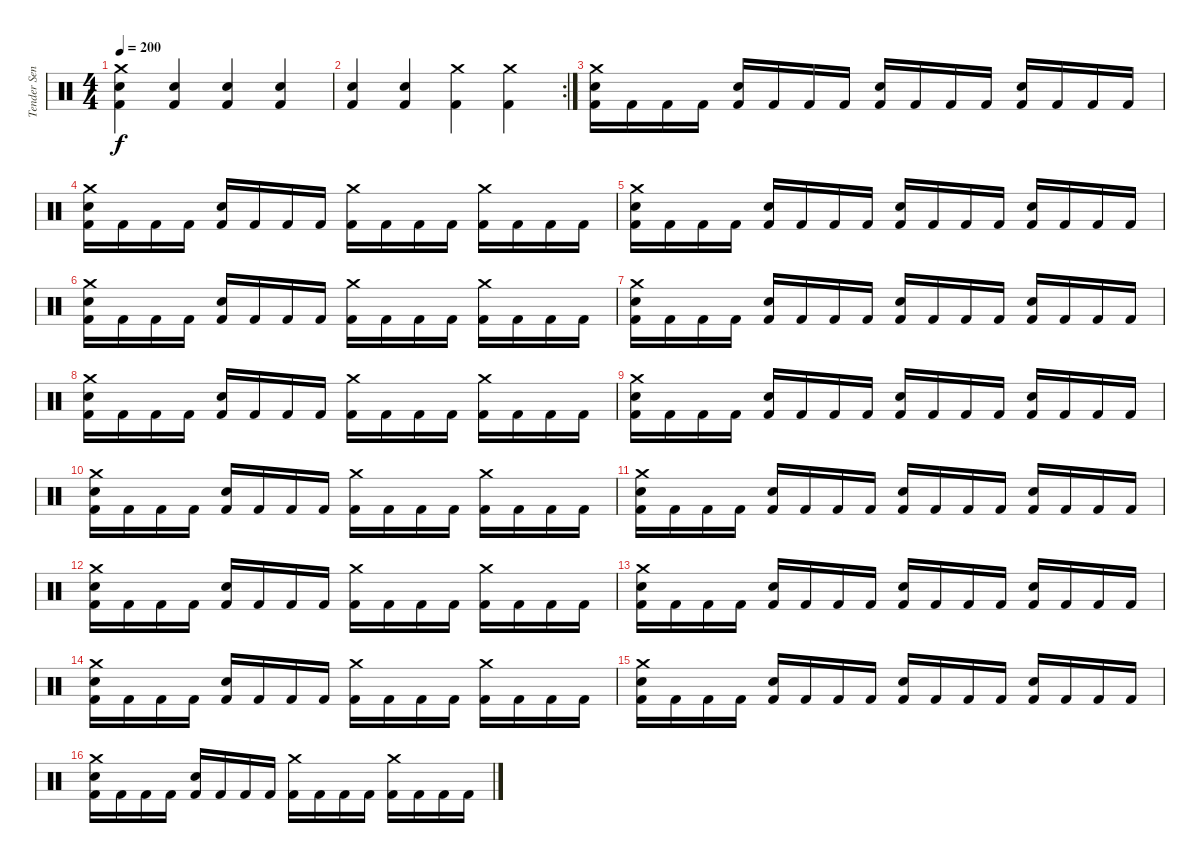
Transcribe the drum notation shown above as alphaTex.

\track ("Tender Sender" "Tender Sen") {instrument percussion}
\staff {score}
\articulation defaults
\ts (4 4)
\tempo 200
\clef neutral
\ks c
("Kick (hit) 2" "Snare (hit) 2" "Crash medium (hit)").4{dy f} ("Kick (hit) 2" "Snare (hit) 2").4 ("Kick (hit) 2" "Snare (hit) 2").4 ("Kick (hit) 2" "Snare (hit) 2").4 |
\rc 2
("Kick (hit) 2" "Snare (hit) 2").4 ("Kick (hit) 2" "Snare (hit) 2").4 ("Kick (hit) 2" "Crash medium (hit)").4 ("Kick (hit) 2" "Crash medium (hit)").4 |
("Kick (hit) 2" "Snare (hit) 2" "Crash medium (hit)").16 "Kick (hit) 2".16 "Kick (hit) 2".16 "Kick (hit) 2".16 ("Kick (hit) 2" "Snare (hit) 2").16 "Kick (hit) 2".16 "Kick (hit) 2".16 "Kick (hit) 2".16 ("Kick (hit) 2" "Snare (hit) 2").16 "Kick (hit) 2".16 "Kick (hit) 2".16 "Kick (hit) 2".16 ("Kick (hit) 2" "Snare (hit) 2").16 "Kick (hit) 2".16 "Kick (hit) 2".16 "Kick (hit) 2".16 |
("Kick (hit) 2" "Snare (hit) 2" "Crash medium (hit)").16 "Kick (hit) 2".16 "Kick (hit) 2".16 "Kick (hit) 2".16 ("Kick (hit) 2" "Snare (hit) 2").16 "Kick (hit) 2".16 "Kick (hit) 2".16 "Kick (hit) 2".16 ("Kick (hit) 2" "Crash medium (hit)").16 "Kick (hit) 2".16 "Kick (hit) 2".16 "Kick (hit) 2".16 ("Kick (hit) 2" "Crash medium (hit)").16 "Kick (hit) 2".16 "Kick (hit) 2".16 "Kick (hit) 2".16 |
("Kick (hit) 2" "Snare (hit) 2" "Crash medium (hit)").16 "Kick (hit) 2".16 "Kick (hit) 2".16 "Kick (hit) 2".16 ("Kick (hit) 2" "Snare (hit) 2").16 "Kick (hit) 2".16 "Kick (hit) 2".16 "Kick (hit) 2".16 ("Kick (hit) 2" "Snare (hit) 2").16 "Kick (hit) 2".16 "Kick (hit) 2".16 "Kick (hit) 2".16 ("Kick (hit) 2" "Snare (hit) 2").16 "Kick (hit) 2".16 "Kick (hit) 2".16 "Kick (hit) 2".16 |
("Kick (hit) 2" "Snare (hit) 2" "Crash medium (hit)").16 "Kick (hit) 2".16 "Kick (hit) 2".16 "Kick (hit) 2".16 ("Kick (hit) 2" "Snare (hit) 2").16 "Kick (hit) 2".16 "Kick (hit) 2".16 "Kick (hit) 2".16 ("Kick (hit) 2" "Crash medium (hit)").16 "Kick (hit) 2".16 "Kick (hit) 2".16 "Kick (hit) 2".16 ("Kick (hit) 2" "Crash medium (hit)").16 "Kick (hit) 2".16 "Kick (hit) 2".16 "Kick (hit) 2".16 |
("Kick (hit) 2" "Snare (hit) 2" "Crash medium (hit)").16 "Kick (hit) 2".16 "Kick (hit) 2".16 "Kick (hit) 2".16 ("Kick (hit) 2" "Snare (hit) 2").16 "Kick (hit) 2".16 "Kick (hit) 2".16 "Kick (hit) 2".16 ("Kick (hit) 2" "Snare (hit) 2").16 "Kick (hit) 2".16 "Kick (hit) 2".16 "Kick (hit) 2".16 ("Kick (hit) 2" "Snare (hit) 2").16 "Kick (hit) 2".16 "Kick (hit) 2".16 "Kick (hit) 2".16 |
("Kick (hit) 2" "Snare (hit) 2" "Crash medium (hit)").16 "Kick (hit) 2".16 "Kick (hit) 2".16 "Kick (hit) 2".16 ("Kick (hit) 2" "Snare (hit) 2").16 "Kick (hit) 2".16 "Kick (hit) 2".16 "Kick (hit) 2".16 ("Kick (hit) 2" "Crash medium (hit)").16 "Kick (hit) 2".16 "Kick (hit) 2".16 "Kick (hit) 2".16 ("Kick (hit) 2" "Crash medium (hit)").16 "Kick (hit) 2".16 "Kick (hit) 2".16 "Kick (hit) 2".16 |
("Kick (hit) 2" "Snare (hit) 2" "Crash medium (hit)").16 "Kick (hit) 2".16 "Kick (hit) 2".16 "Kick (hit) 2".16 ("Kick (hit) 2" "Snare (hit) 2").16 "Kick (hit) 2".16 "Kick (hit) 2".16 "Kick (hit) 2".16 ("Kick (hit) 2" "Snare (hit) 2").16 "Kick (hit) 2".16 "Kick (hit) 2".16 "Kick (hit) 2".16 ("Kick (hit) 2" "Snare (hit) 2").16 "Kick (hit) 2".16 "Kick (hit) 2".16 "Kick (hit) 2".16 |
("Kick (hit) 2" "Snare (hit) 2" "Crash medium (hit)").16 "Kick (hit) 2".16 "Kick (hit) 2".16 "Kick (hit) 2".16 ("Kick (hit) 2" "Snare (hit) 2").16 "Kick (hit) 2".16 "Kick (hit) 2".16 "Kick (hit) 2".16 ("Kick (hit) 2" "Crash medium (hit)").16 "Kick (hit) 2".16 "Kick (hit) 2".16 "Kick (hit) 2".16 ("Kick (hit) 2" "Crash medium (hit)").16 "Kick (hit) 2".16 "Kick (hit) 2".16 "Kick (hit) 2".16 |
("Kick (hit) 2" "Snare (hit) 2" "Crash medium (hit)").16 "Kick (hit) 2".16 "Kick (hit) 2".16 "Kick (hit) 2".16 ("Kick (hit) 2" "Snare (hit) 2").16 "Kick (hit) 2".16 "Kick (hit) 2".16 "Kick (hit) 2".16 ("Kick (hit) 2" "Snare (hit) 2").16 "Kick (hit) 2".16 "Kick (hit) 2".16 "Kick (hit) 2".16 ("Kick (hit) 2" "Snare (hit) 2").16 "Kick (hit) 2".16 "Kick (hit) 2".16 "Kick (hit) 2".16 |
("Kick (hit) 2" "Snare (hit) 2" "Crash medium (hit)").16 "Kick (hit) 2".16 "Kick (hit) 2".16 "Kick (hit) 2".16 ("Kick (hit) 2" "Snare (hit) 2").16 "Kick (hit) 2".16 "Kick (hit) 2".16 "Kick (hit) 2".16 ("Kick (hit) 2" "Crash medium (hit)").16 "Kick (hit) 2".16 "Kick (hit) 2".16 "Kick (hit) 2".16 ("Kick (hit) 2" "Crash medium (hit)").16 "Kick (hit) 2".16 "Kick (hit) 2".16 "Kick (hit) 2".16 |
("Kick (hit) 2" "Snare (hit) 2" "Crash medium (hit)").16 "Kick (hit) 2".16 "Kick (hit) 2".16 "Kick (hit) 2".16 ("Kick (hit) 2" "Snare (hit) 2").16 "Kick (hit) 2".16 "Kick (hit) 2".16 "Kick (hit) 2".16 ("Kick (hit) 2" "Snare (hit) 2").16 "Kick (hit) 2".16 "Kick (hit) 2".16 "Kick (hit) 2".16 ("Kick (hit) 2" "Snare (hit) 2").16 "Kick (hit) 2".16 "Kick (hit) 2".16 "Kick (hit) 2".16 |
("Kick (hit) 2" "Snare (hit) 2" "Crash medium (hit)").16 "Kick (hit) 2".16 "Kick (hit) 2".16 "Kick (hit) 2".16 ("Kick (hit) 2" "Snare (hit) 2").16 "Kick (hit) 2".16 "Kick (hit) 2".16 "Kick (hit) 2".16 ("Kick (hit) 2" "Crash medium (hit)").16 "Kick (hit) 2".16 "Kick (hit) 2".16 "Kick (hit) 2".16 ("Kick (hit) 2" "Crash medium (hit)").16 "Kick (hit) 2".16 "Kick (hit) 2".16 "Kick (hit) 2".16 |
("Kick (hit) 2" "Snare (hit) 2" "Crash medium (hit)").16 "Kick (hit) 2".16 "Kick (hit) 2".16 "Kick (hit) 2".16 ("Kick (hit) 2" "Snare (hit) 2").16 "Kick (hit) 2".16 "Kick (hit) 2".16 "Kick (hit) 2".16 ("Kick (hit) 2" "Snare (hit) 2").16 "Kick (hit) 2".16 "Kick (hit) 2".16 "Kick (hit) 2".16 ("Kick (hit) 2" "Snare (hit) 2").16 "Kick (hit) 2".16 "Kick (hit) 2".16 "Kick (hit) 2".16 |
("Kick (hit) 2" "Snare (hit) 2" "Crash medium (hit)").16 "Kick (hit) 2".16 "Kick (hit) 2".16 "Kick (hit) 2".16 ("Kick (hit) 2" "Snare (hit) 2").16 "Kick (hit) 2".16 "Kick (hit) 2".16 "Kick (hit) 2".16 ("Kick (hit) 2" "Crash medium (hit)").16 "Kick (hit) 2".16 "Kick (hit) 2".16 "Kick (hit) 2".16 ("Kick (hit) 2" "Crash medium (hit)").16 "Kick (hit) 2".16 "Kick (hit) 2".16 "Kick (hit) 2".16
